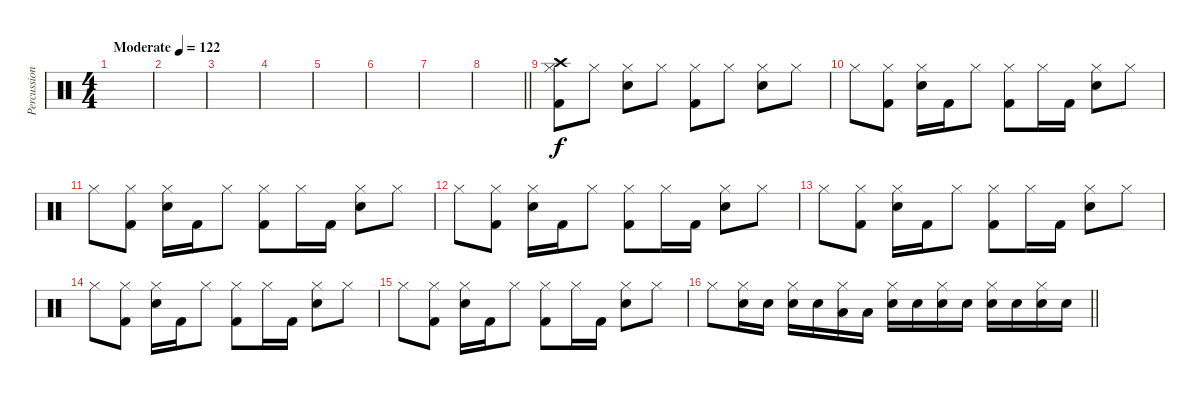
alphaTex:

\track ("Percussion" "Percussion") {instrument percussion}
\staff {score}
\articulation defaults
\ts (4 4)
\tempo (122 "Moderate")
\clef neutral
\ks c
|
|
|
|
|
|
|
\barLineRight lightlight
|
("Crash high (hit)" "Hi-Hat (closed)" "Kick (hit) 2").8 "Hi-Hat (closed)".8 ("Hi-Hat (closed)" "Electric Snare (hit)").8 "Hi-Hat (closed)".8 ("Hi-Hat (closed)" "Kick (hit) 2").8 "Hi-Hat (closed)".8 ("Hi-Hat (closed)" "Electric Snare (hit)").8 "Hi-Hat (closed)".8 |
"Hi-Hat (closed)".8 ("Hi-Hat (closed)" "Kick (hit) 2").8 ("Hi-Hat (closed)" "Electric Snare (hit)").16 "Kick (hit) 2".16 "Hi-Hat (closed)".8 ("Hi-Hat (closed)" "Kick (hit) 2").8 "Hi-Hat (closed)".16 "Kick (hit) 2".16 ("Hi-Hat (closed)" "Electric Snare (hit)").8 "Hi-Hat (closed)".8 |
"Hi-Hat (closed)".8 ("Hi-Hat (closed)" "Kick (hit) 2").8 ("Hi-Hat (closed)" "Electric Snare (hit)").16 "Kick (hit) 2".16 "Hi-Hat (closed)".8 ("Hi-Hat (closed)" "Kick (hit) 2").8 "Hi-Hat (closed)".16 "Kick (hit) 2".16 ("Hi-Hat (closed)" "Electric Snare (hit)").8 "Hi-Hat (closed)".8 |
"Hi-Hat (closed)".8 ("Hi-Hat (closed)" "Kick (hit) 2").8 ("Hi-Hat (closed)" "Electric Snare (hit)").16 "Kick (hit) 2".16 "Hi-Hat (closed)".8 ("Hi-Hat (closed)" "Kick (hit) 2").8 "Hi-Hat (closed)".16 "Kick (hit) 2".16 ("Hi-Hat (closed)" "Electric Snare (hit)").8 "Hi-Hat (closed)".8 |
"Hi-Hat (closed)".8 ("Hi-Hat (closed)" "Kick (hit) 2").8 ("Hi-Hat (closed)" "Electric Snare (hit)").16 "Kick (hit) 2".16 "Hi-Hat (closed)".8 ("Hi-Hat (closed)" "Kick (hit) 2").8 "Hi-Hat (closed)".16 "Kick (hit) 2".16 ("Hi-Hat (closed)" "Electric Snare (hit)").8 "Hi-Hat (closed)".8 |
"Hi-Hat (closed)".8 ("Hi-Hat (closed)" "Kick (hit) 2").8 ("Hi-Hat (closed)" "Electric Snare (hit)").16 "Kick (hit) 2".16 "Hi-Hat (closed)".8 ("Hi-Hat (closed)" "Kick (hit) 2").8 "Hi-Hat (closed)".16 "Kick (hit) 2".16 ("Hi-Hat (closed)" "Electric Snare (hit)").8 "Hi-Hat (closed)".8 |
"Hi-Hat (closed)".8 ("Hi-Hat (closed)" "Kick (hit) 2").8 ("Hi-Hat (closed)" "Electric Snare (hit)").16 "Kick (hit) 2".16 "Hi-Hat (closed)".8 ("Hi-Hat (closed)" "Kick (hit) 2").8 "Hi-Hat (closed)".16 "Kick (hit) 2".16 ("Hi-Hat (closed)" "Electric Snare (hit)").8 "Hi-Hat (closed)".8 |
\barLineRight lightlight "Hi-Hat (closed)".8
("Hi-Hat (closed)" "Electric Snare (hit)").16 "Electric Snare (hit)".16 ("Hi-Hat (closed)" "Electric Snare (hit)").16 "Electric Snare (hit)".16 ("Hi-Hat (closed)" "Low Tom (hit)").16 "Low Tom (hit)".16 ("Hi-Hat (closed)" "Electric Snare (hit)").16 "Electric Snare (hit)".16 ("Hi-Hat (closed)" "Electric Snare (hit)").16 "Electric Snare (hit)".16 ("Hi-Hat (closed)" "Electric Snare (hit)").16 "Electric Snare (hit)".16 ("Hi-Hat (closed)" "Electric Snare (hit)").16 "Electric Snare (hit)".16
